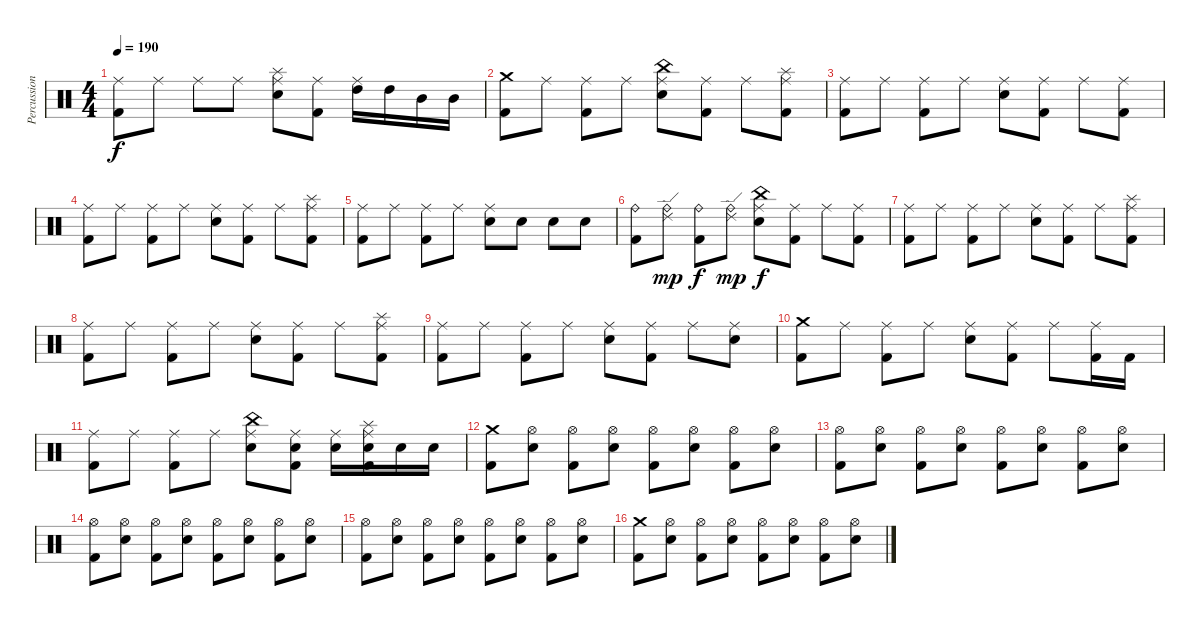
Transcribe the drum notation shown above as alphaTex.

\track ("Percussions" "Percussion") {instrument percussion}
\staff {score}
\articulation defaults
\ts (4 4)
\tempo 190
\clef neutral
\ks c
("Ride (middle)" "Kick (hit) 2").8{dy f} "Ride (middle)".8 "Ride (middle)".8 "Ride (middle)".8 ("Ride (middle)" "Splash (hit)" "Electric Snare (hit)").8 ("Ride (middle)" "Kick (hit) 2").8 ("Ride (middle)" "High Tom (hit)").16 "High Tom (hit)".16 "Mid Tom (hit)".16 "Mid Tom (hit)".16 |
("Crash medium (hit)" "Kick (hit) 2").8 "Ride (middle)".8 ("Ride (middle)" "Kick (hit) 2").8 "Ride (middle)".8 ("Ride (middle)" "China (hit)" "Electric Snare (hit)").8 ("Ride (middle)" "Kick (hit) 2").8 "Ride (middle)".8 ("Ride (middle)" "Splash (hit)" "Kick (hit) 2").8 |
("Ride (middle)" "Kick (hit) 2").8 "Ride (middle)".8 ("Ride (middle)" "Kick (hit) 2").8 "Ride (middle)".8 ("Ride (middle)" "Electric Snare (hit)").8 ("Ride (middle)" "Kick (hit) 2").8 "Ride (middle)".8 ("Ride (middle)" "Kick (hit) 2").8 |
("Ride (middle)" "Kick (hit) 2").8 "Ride (middle)".8 ("Ride (middle)" "Kick (hit) 2").8 "Ride (middle)".8 ("Ride (middle)" "Electric Snare (hit)").8 ("Ride (middle)" "Kick (hit) 2").8 "Ride (middle)".8 ("Ride (middle)" "Splash (hit)" "Kick (hit) 2").8 |
("Ride (middle)" "Kick (hit) 2").8 "Ride (middle)".8 ("Ride (middle)" "Kick (hit) 2").8 "Ride (middle)".8 ("Ride (middle)" "Electric Snare (hit)").8 "Electric Snare (hit)".8 "Electric Snare (hit)".8 "Electric Snare (hit)".8 |
("Ride (bell)" "Kick (hit) 2").8 ("Ride (edge) 2" "Ride (bell)").8{dy mp} ("Ride (bell)" "Kick (hit) 2").8{dy f} ("Ride (edge) 2" "Ride (bell)").8{dy mp} ("Ride (middle)" "China (hit)" "Electric Snare (hit)").8{dy f} ("Ride (middle)" "Kick (hit) 2").8 "Ride (middle)".8 ("Ride (middle)" "Kick (hit) 2").8 |
("Ride (middle)" "Kick (hit) 2").8 "Ride (middle)".8 ("Ride (middle)" "Kick (hit) 2").8 "Ride (middle)".8 ("Ride (middle)" "Electric Snare (hit)").8 ("Ride (middle)" "Kick (hit) 2").8 "Ride (middle)".8 ("Ride (middle)" "Splash (hit)" "Kick (hit) 2").8 |
("Ride (middle)" "Kick (hit) 2").8 "Ride (middle)".8 ("Ride (middle)" "Kick (hit) 2").8 "Ride (middle)".8 ("Ride (middle)" "Electric Snare (hit)").8 ("Ride (middle)" "Kick (hit) 2").8 "Ride (middle)".8 ("Ride (middle)" "Splash (hit)" "Kick (hit) 2").8 |
("Ride (middle)" "Kick (hit) 2").8 "Ride (middle)".8 ("Ride (middle)" "Kick (hit) 2").8 "Ride (middle)".8 ("Ride (middle)" "Electric Snare (hit)").8 ("Ride (middle)" "Kick (hit) 2").8 "Ride (middle)".8 ("Ride (middle)" "Electric Snare (hit)").8 |
("Crash medium (hit)" "Kick (hit) 2").8 "Ride (middle)".8 ("Ride (middle)" "Kick (hit) 2").8 "Ride (middle)".8 ("Ride (middle)" "Electric Snare (hit)").8 ("Ride (middle)" "Kick (hit) 2").8 "Ride (middle)".8 ("Ride (middle)" "Kick (hit) 2").16 "Kick (hit) 2".16 |
("Ride (middle)" "Kick (hit) 2").8 "Ride (middle)".8 ("Ride (middle)" "Kick (hit) 2").8 "Ride (middle)".8 ("Ride (middle)" "China (hit)" "Electric Snare (hit)").8 ("Ride (middle)" "Electric Snare (hit)" "Kick (hit) 2").8 ("Ride (middle)" "Electric Snare (hit)").16 ("Ride (middle)" "Splash (hit)" "Electric Snare (hit)" "Kick (hit) 2").16 "Electric Snare (hit)".16 "Electric Snare (hit)".16 |
("Crash medium (hit)" "Kick (hit) 2").8 ("Hi-Hat (open)" "Electric Snare (hit)").8 ("Hi-Hat (open)" "Kick (hit) 2").8 ("Hi-Hat (open)" "Electric Snare (hit)").8 ("Hi-Hat (open)" "Kick (hit) 2").8 ("Hi-Hat (open)" "Electric Snare (hit)").8 ("Hi-Hat (open)" "Kick (hit) 2").8 ("Hi-Hat (open)" "Electric Snare (hit)").8 |
("Hi-Hat (open)" "Kick (hit) 2").8 ("Hi-Hat (open)" "Electric Snare (hit)").8 ("Hi-Hat (open)" "Kick (hit) 2").8 ("Hi-Hat (open)" "Electric Snare (hit)").8 ("Hi-Hat (open)" "Kick (hit) 2").8 ("Hi-Hat (open)" "Electric Snare (hit)").8 ("Hi-Hat (open)" "Kick (hit) 2").8 ("Hi-Hat (open)" "Electric Snare (hit)").8 |
("Hi-Hat (open)" "Kick (hit) 2").8 ("Hi-Hat (open)" "Electric Snare (hit)").8 ("Hi-Hat (open)" "Kick (hit) 2").8 ("Hi-Hat (open)" "Electric Snare (hit)").8 ("Hi-Hat (open)" "Kick (hit) 2").8 ("Hi-Hat (open)" "Electric Snare (hit)").8 ("Hi-Hat (open)" "Kick (hit) 2").8 ("Hi-Hat (open)" "Electric Snare (hit)").8 |
("Hi-Hat (open)" "Kick (hit) 2").8 ("Hi-Hat (open)" "Electric Snare (hit)").8 ("Hi-Hat (open)" "Kick (hit) 2").8 ("Hi-Hat (open)" "Electric Snare (hit)").8 ("Hi-Hat (open)" "Kick (hit) 2").8 ("Hi-Hat (open)" "Electric Snare (hit)").8 ("Hi-Hat (open)" "Kick (hit) 2").8 ("Hi-Hat (open)" "Electric Snare (hit)").8 |
("Crash medium (hit)" "Kick (hit) 2").8 ("Hi-Hat (open)" "Electric Snare (hit)").8 ("Hi-Hat (open)" "Kick (hit) 2").8 ("Hi-Hat (open)" "Electric Snare (hit)").8 ("Hi-Hat (open)" "Kick (hit) 2").8 ("Hi-Hat (open)" "Electric Snare (hit)").8 ("Hi-Hat (open)" "Kick (hit) 2").8 ("Hi-Hat (open)" "Electric Snare (hit)").8
